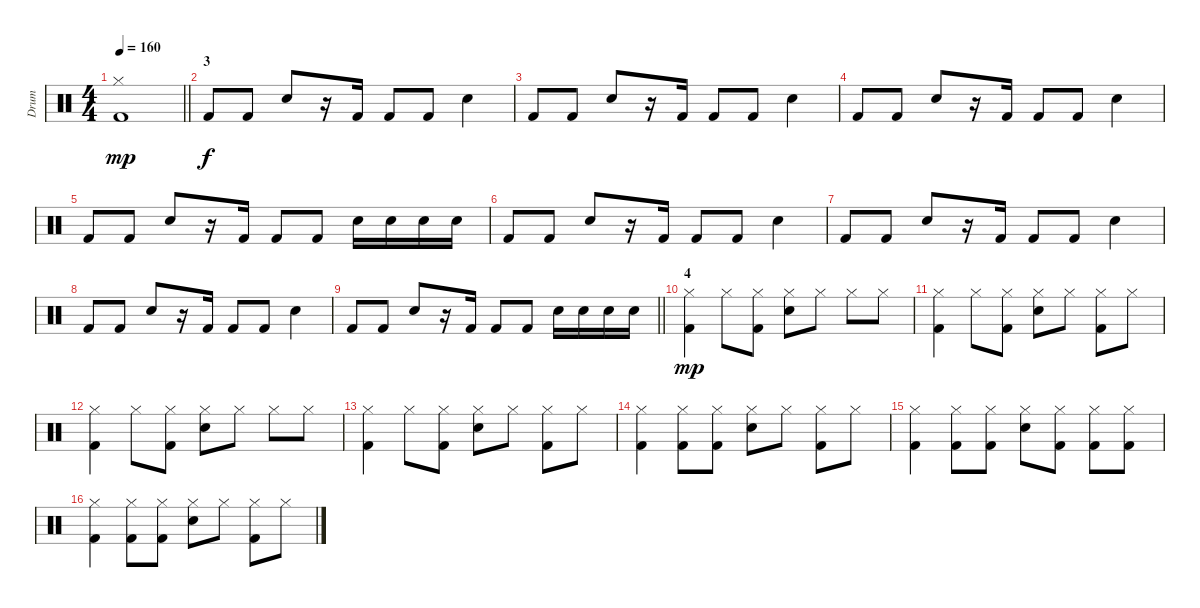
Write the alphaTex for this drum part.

\track ("Drum" "Drum") {instrument percussion}
\staff {score}
\articulation defaults
\ts (4 4)
\tempo 160
\clef neutral
\barLineRight lightlight
\ks c
("Hi-Hat (closed)" "Kick (hit) 2").1{dy mp} |
\section ("" "3")
"Kick (hit) 2".8{dy f} "Kick (hit) 2".8 "Electric Snare (hit)".8 r.16 "Kick (hit) 2".16 "Kick (hit) 2".8 "Kick (hit) 2".8 "Electric Snare (hit)".4 |
"Kick (hit) 2".8 "Kick (hit) 2".8 "Electric Snare (hit)".8 r.16 "Kick (hit) 2".16 "Kick (hit) 2".8 "Kick (hit) 2".8 "Electric Snare (hit)".4 |
"Kick (hit) 2".8 "Kick (hit) 2".8 "Electric Snare (hit)".8 r.16 "Kick (hit) 2".16 "Kick (hit) 2".8 "Kick (hit) 2".8 "Electric Snare (hit)".4 |
"Kick (hit) 2".8 "Kick (hit) 2".8 "Electric Snare (hit)".8 r.16 "Kick (hit) 2".16 "Kick (hit) 2".8 "Kick (hit) 2".8 "Electric Snare (hit)".16 "Electric Snare (hit)".16 "Electric Snare (hit)".16 "Electric Snare (hit)".16 |
"Kick (hit) 2".8 "Kick (hit) 2".8 "Electric Snare (hit)".8 r.16 "Kick (hit) 2".16 "Kick (hit) 2".8 "Kick (hit) 2".8 "Electric Snare (hit)".4 |
"Kick (hit) 2".8 "Kick (hit) 2".8 "Electric Snare (hit)".8 r.16 "Kick (hit) 2".16 "Kick (hit) 2".8 "Kick (hit) 2".8 "Electric Snare (hit)".4 |
"Kick (hit) 2".8 "Kick (hit) 2".8 "Electric Snare (hit)".8 r.16 "Kick (hit) 2".16 "Kick (hit) 2".8 "Kick (hit) 2".8 "Electric Snare (hit)".4 |
\barLineRight lightlight "Kick (hit) 2".8 "Kick (hit) 2".8 "Electric Snare (hit)".8
r.16 "Kick (hit) 2".16 "Kick (hit) 2".8 "Kick (hit) 2".8 "Electric Snare (hit)".16 "Electric Snare (hit)".16 "Electric Snare (hit)".16 "Electric Snare (hit)".16 |
\section ("" "4")
("Hi-Hat (closed)" "Kick (hit) 2").4{dy mp} "Hi-Hat (closed)".8 ("Hi-Hat (closed)" "Kick (hit) 2").8 ("Hi-Hat (closed)" "Hand Clap (hit)").8 "Hi-Hat (closed)".8 "Hi-Hat (closed)".8 "Hi-Hat (closed)".8 |
("Hi-Hat (closed)" "Kick (hit) 2").4 "Hi-Hat (closed)".8 ("Hi-Hat (closed)" "Kick (hit) 2").8 ("Hi-Hat (closed)" "Hand Clap (hit)").8 "Hi-Hat (closed)".8 ("Hi-Hat (closed)" "Kick (hit) 2").8 "Hi-Hat (closed)".8 |
("Hi-Hat (closed)" "Kick (hit) 2").4 "Hi-Hat (closed)".8 ("Hi-Hat (closed)" "Kick (hit) 2").8 ("Hi-Hat (closed)" "Hand Clap (hit)").8 "Hi-Hat (closed)".8 "Hi-Hat (closed)".8 "Hi-Hat (closed)".8 |
("Hi-Hat (closed)" "Kick (hit) 2").4 "Hi-Hat (closed)".8 ("Hi-Hat (closed)" "Kick (hit) 2").8 ("Hi-Hat (closed)" "Hand Clap (hit)").8 "Hi-Hat (closed)".8 ("Hi-Hat (closed)" "Kick (hit) 2").8 "Hi-Hat (closed)".8 |
("Hi-Hat (closed)" "Kick (hit) 2").4 ("Hi-Hat (closed)" "Kick (hit) 2").8 ("Hi-Hat (closed)" "Kick (hit) 2").8 ("Hi-Hat (closed)" "Hand Clap (hit)").8 "Hi-Hat (closed)".8 ("Hi-Hat (closed)" "Kick (hit) 2").8 "Hi-Hat (closed)".8 |
("Hi-Hat (closed)" "Kick (hit) 2").4 ("Hi-Hat (closed)" "Kick (hit) 2").8 ("Hi-Hat (closed)" "Kick (hit) 2").8 ("Hi-Hat (closed)" "Hand Clap (hit)").8 ("Hi-Hat (closed)" "Kick (hit) 2").8 ("Hi-Hat (closed)" "Kick (hit) 2").8 ("Hi-Hat (closed)" "Kick (hit) 2").8 |
("Hi-Hat (closed)" "Kick (hit) 2").4 ("Hi-Hat (closed)" "Kick (hit) 2").8 ("Hi-Hat (closed)" "Kick (hit) 2").8 ("Hi-Hat (closed)" "Hand Clap (hit)").8 "Hi-Hat (closed)".8 ("Hi-Hat (closed)" "Kick (hit) 2").8 "Hi-Hat (closed)".8
